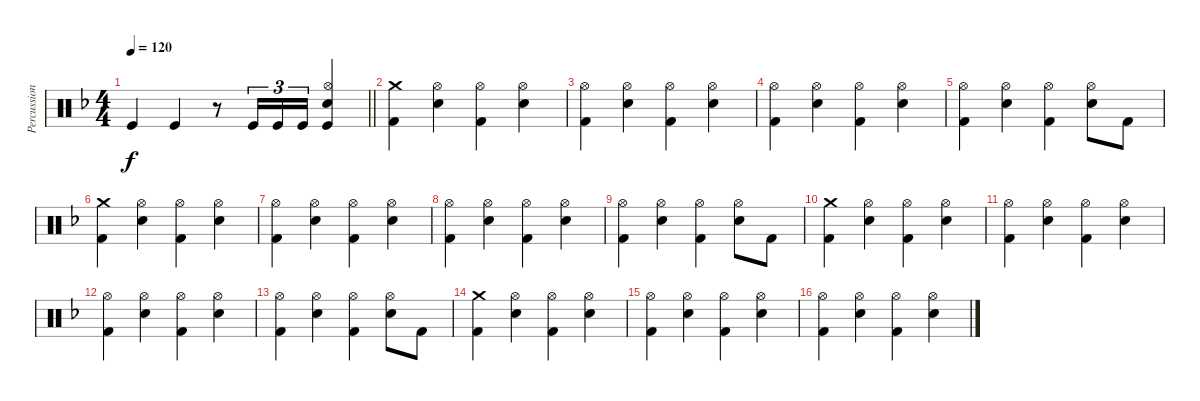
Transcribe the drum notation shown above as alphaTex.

\track ("Percussion" "Percussion") {instrument percussion}
\staff {score}
\articulation defaults
\ts (4 4)
\tempo 120
\clef neutral
\barLineRight lightlight
\ks f "Kick (hit)".4{dy f} "Kick (hit)".4
r.8 "Kick (hit)".16{tu (3 2)} "Kick (hit)".16{tu (3 2)} "Kick (hit)".16{tu (3 2)} ("Hi-Hat (open)" "Electric Snare (hit)" "Kick (hit)").4 |
("Crash medium (hit)" "Kick (hit) 2").4 ("Hi-Hat (open)" "Electric Snare (hit)").4 ("Hi-Hat (open)" "Kick (hit) 2").4 ("Hi-Hat (open)" "Electric Snare (hit)").4 |
("Hi-Hat (open)" "Kick (hit) 2").4 ("Hi-Hat (open)" "Electric Snare (hit)").4 ("Hi-Hat (open)" "Kick (hit) 2").4 ("Hi-Hat (open)" "Electric Snare (hit)").4 |
("Hi-Hat (open)" "Kick (hit) 2").4 ("Hi-Hat (open)" "Electric Snare (hit)").4 ("Hi-Hat (open)" "Kick (hit) 2").4 ("Hi-Hat (open)" "Electric Snare (hit)").4 |
("Hi-Hat (open)" "Kick (hit) 2").4 ("Hi-Hat (open)" "Electric Snare (hit)").4 ("Hi-Hat (open)" "Kick (hit) 2").4 ("Hi-Hat (open)" "Electric Snare (hit)").8 "Kick (hit) 2".8 |
("Crash medium (hit)" "Kick (hit) 2").4 ("Hi-Hat (open)" "Electric Snare (hit)").4 ("Hi-Hat (open)" "Kick (hit) 2").4 ("Hi-Hat (open)" "Electric Snare (hit)").4 |
("Hi-Hat (open)" "Kick (hit) 2").4 ("Hi-Hat (open)" "Electric Snare (hit)").4 ("Hi-Hat (open)" "Kick (hit) 2").4 ("Hi-Hat (open)" "Electric Snare (hit)").4 |
("Hi-Hat (open)" "Kick (hit) 2").4 ("Hi-Hat (open)" "Electric Snare (hit)").4 ("Hi-Hat (open)" "Kick (hit) 2").4 ("Hi-Hat (open)" "Electric Snare (hit)").4 |
("Hi-Hat (open)" "Kick (hit) 2").4 ("Hi-Hat (open)" "Electric Snare (hit)").4 ("Hi-Hat (open)" "Kick (hit) 2").4 ("Hi-Hat (open)" "Electric Snare (hit)").8 "Kick (hit) 2".8 |
("Crash medium (hit)" "Kick (hit) 2").4 ("Hi-Hat (open)" "Electric Snare (hit)").4 ("Hi-Hat (open)" "Kick (hit) 2").4 ("Hi-Hat (open)" "Electric Snare (hit)").4 |
("Hi-Hat (open)" "Kick (hit) 2").4 ("Hi-Hat (open)" "Electric Snare (hit)").4 ("Hi-Hat (open)" "Kick (hit) 2").4 ("Hi-Hat (open)" "Electric Snare (hit)").4 |
("Hi-Hat (open)" "Kick (hit) 2").4 ("Hi-Hat (open)" "Electric Snare (hit)").4 ("Hi-Hat (open)" "Kick (hit) 2").4 ("Hi-Hat (open)" "Electric Snare (hit)").4 |
("Hi-Hat (open)" "Kick (hit) 2").4 ("Hi-Hat (open)" "Electric Snare (hit)").4 ("Hi-Hat (open)" "Kick (hit) 2").4 ("Hi-Hat (open)" "Electric Snare (hit)").8 "Kick (hit) 2".8 |
("Crash medium (hit)" "Kick (hit) 2").4 ("Hi-Hat (open)" "Electric Snare (hit)").4 ("Hi-Hat (open)" "Kick (hit) 2").4 ("Hi-Hat (open)" "Electric Snare (hit)").4 |
("Hi-Hat (open)" "Kick (hit) 2").4 ("Hi-Hat (open)" "Electric Snare (hit)").4 ("Hi-Hat (open)" "Kick (hit) 2").4 ("Hi-Hat (open)" "Electric Snare (hit)").4 |
("Hi-Hat (open)" "Kick (hit) 2").4 ("Hi-Hat (open)" "Electric Snare (hit)").4 ("Hi-Hat (open)" "Kick (hit) 2").4 ("Hi-Hat (open)" "Electric Snare (hit)").4
